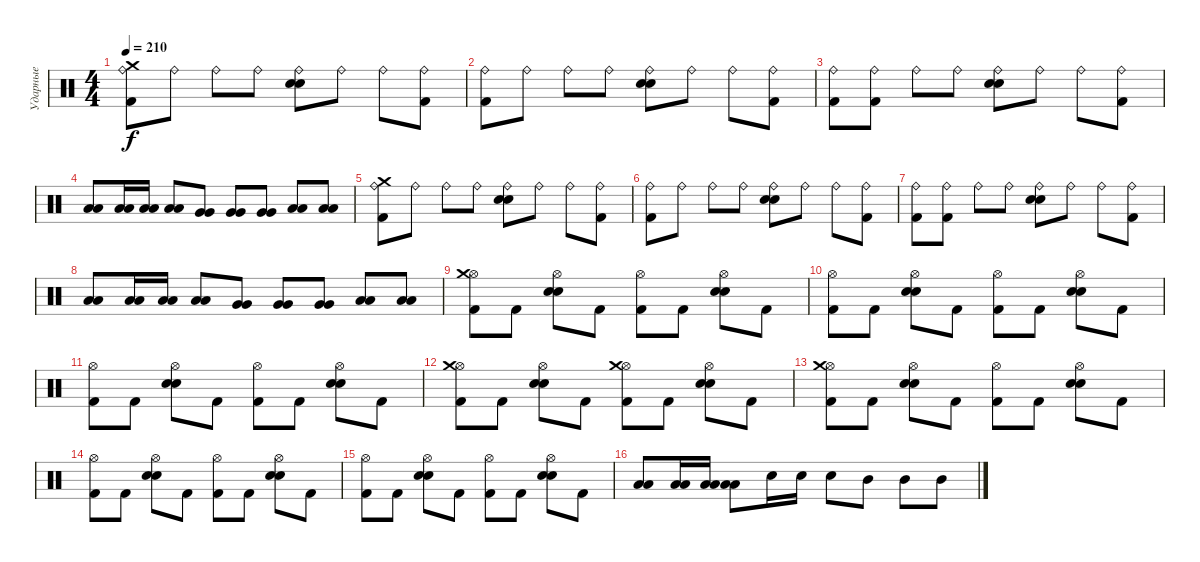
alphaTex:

\track ("Ударные" "Ударные") {instrument percussion}
\staff {score}
\articulation defaults
\ts (4 4)
\tempo 210
\clef neutral
\ks c
("Crash medium (hit)" "Ride (bell)" "Kick (hit) 2").8{dy f} "Ride (bell)".8 "Ride (bell)".8 "Ride (bell)".8 ("Ride (bell)" "Electric Snare (hit)" "Snare (hit) 2").8 "Ride (bell)".8 "Ride (bell)".8 ("Ride (bell)" "Kick (hit) 2").8 |
("Ride (bell)" "Kick (hit) 2").8 "Ride (bell)".8 "Ride (bell)".8 "Ride (bell)".8 ("Ride (bell)" "Electric Snare (hit)" "Snare (hit) 2").8 "Ride (bell)".8 "Ride (bell)".8 ("Ride (bell)" "Kick (hit) 2").8 |
("Ride (bell)" "Kick (hit) 2").8 ("Ride (bell)" "Kick (hit) 2").8 "Ride (bell)".8 "Ride (bell)".8 ("Ride (bell)" "Electric Snare (hit)" "Snare (hit) 2").8 "Ride (bell)".8 "Ride (bell)".8 ("Ride (bell)" "Kick (hit) 2").8 |
("Low Floor Tom (hit)" "Low Floor Tom (hit)").8 ("Low Floor Tom (hit)" "Low Floor Tom (hit)").16 ("Low Floor Tom (hit)" "Low Floor Tom (hit)").16 ("Low Floor Tom (hit)" "Low Floor Tom (hit)").8 ("Very Low Tom (hit)" "Very Low Tom (hit)").8 ("Very Low Tom (hit)" "Very Low Tom (hit)").8 ("Very Low Tom (hit)" "Very Low Tom (hit)").8 ("Low Tom (hit)" "Low Tom (hit)").8 ("Low Tom (hit)" "Low Tom (hit)").8 |
("Crash medium (hit)" "Ride (bell)" "Kick (hit) 2").8 "Ride (bell)".8 "Ride (bell)".8 "Ride (bell)".8 ("Ride (bell)" "Electric Snare (hit)" "Snare (hit) 2").8 "Ride (bell)".8 "Ride (bell)".8 ("Ride (bell)" "Kick (hit) 2").8 |
("Ride (bell)" "Kick (hit) 2").8 "Ride (bell)".8 "Ride (bell)".8 "Ride (bell)".8 ("Ride (bell)" "Electric Snare (hit)" "Snare (hit) 2").8 "Ride (bell)".8 "Ride (bell)".8 ("Ride (bell)" "Kick (hit) 2").8 |
("Ride (bell)" "Kick (hit) 2").8 ("Ride (bell)" "Kick (hit) 2").8 "Ride (bell)".8 "Ride (bell)".8 ("Ride (bell)" "Electric Snare (hit)" "Snare (hit) 2").8 "Ride (bell)".8 "Ride (bell)".8 ("Ride (bell)" "Kick (hit) 2").8 |
("Low Floor Tom (hit)" "Low Floor Tom (hit)").8 ("Low Floor Tom (hit)" "Low Floor Tom (hit)").16 ("Low Floor Tom (hit)" "Low Floor Tom (hit)").16 ("Low Floor Tom (hit)" "Low Floor Tom (hit)").8 ("Very Low Tom (hit)" "Very Low Tom (hit)").8 ("Very Low Tom (hit)" "Very Low Tom (hit)").8 ("Very Low Tom (hit)" "Very Low Tom (hit)").8 ("Low Tom (hit)" "Low Tom (hit)").8 ("Low Tom (hit)" "Low Tom (hit)").8 |
("Hi-Hat (open)" "Crash medium (hit)" "Kick (hit) 2").8 "Kick (hit) 2".8 ("Hi-Hat (open)" "Electric Snare (hit)" "Snare (hit) 2").8 "Kick (hit) 2".8 ("Hi-Hat (open)" "Kick (hit) 2").8 "Kick (hit) 2".8 ("Hi-Hat (open)" "Electric Snare (hit)" "Snare (hit) 2").8 "Kick (hit) 2".8 |
("Hi-Hat (open)" "Kick (hit) 2").8 "Kick (hit) 2".8 ("Hi-Hat (open)" "Electric Snare (hit)" "Snare (hit) 2").8 "Kick (hit) 2".8 ("Hi-Hat (open)" "Kick (hit) 2").8 "Kick (hit) 2".8 ("Hi-Hat (open)" "Electric Snare (hit)" "Snare (hit) 2").8 "Kick (hit) 2".8 |
("Hi-Hat (open)" "Kick (hit) 2").8 "Kick (hit) 2".8 ("Hi-Hat (open)" "Electric Snare (hit)" "Snare (hit) 2").8 "Kick (hit) 2".8 ("Hi-Hat (open)" "Kick (hit) 2").8 "Kick (hit) 2".8 ("Hi-Hat (open)" "Electric Snare (hit)" "Snare (hit) 2").8 "Kick (hit) 2".8 |
("Hi-Hat (open)" "Crash medium (hit)" "Kick (hit) 2").8 "Kick (hit) 2".8 ("Hi-Hat (open)" "Electric Snare (hit)" "Snare (hit) 2").8 "Kick (hit) 2".8 ("Hi-Hat (open)" "Crash medium (hit)" "Kick (hit) 2").8 "Kick (hit) 2".8 ("Hi-Hat (open)" "Electric Snare (hit)" "Snare (hit) 2").8 "Kick (hit) 2".8 |
("Hi-Hat (open)" "Crash medium (hit)" "Kick (hit) 2").8 "Kick (hit) 2".8 ("Hi-Hat (open)" "Electric Snare (hit)" "Snare (hit) 2").8 "Kick (hit) 2".8 ("Hi-Hat (open)" "Kick (hit) 2").8 "Kick (hit) 2".8 ("Hi-Hat (open)" "Electric Snare (hit)" "Snare (hit) 2").8 "Kick (hit) 2".8 |
("Hi-Hat (open)" "Kick (hit) 2").8 "Kick (hit) 2".8 ("Hi-Hat (open)" "Electric Snare (hit)" "Snare (hit) 2").8 "Kick (hit) 2".8 ("Hi-Hat (open)" "Kick (hit) 2").8 "Kick (hit) 2".8 ("Hi-Hat (open)" "Electric Snare (hit)" "Snare (hit) 2").8 "Kick (hit) 2".8 |
("Hi-Hat (open)" "Kick (hit) 2").8 "Kick (hit) 2".8 ("Hi-Hat (open)" "Electric Snare (hit)" "Snare (hit) 2").8 "Kick (hit) 2".8 ("Hi-Hat (open)" "Kick (hit) 2").8 "Kick (hit) 2".8 ("Hi-Hat (open)" "Electric Snare (hit)" "Snare (hit) 2").8 "Kick (hit) 2".8 |
("Low Tom (hit)" "Low Tom (hit)").8 ("Low Tom (hit)" "Low Tom (hit)").16 ("Low Tom (hit)" "Low Tom (hit)").16 ("Low Tom (hit)" "Low Tom (hit)").8 "Electric Snare (hit)".16 "Electric Snare (hit)".16 "Electric Snare (hit)".8 "Mid Tom (hit)".8 "Mid Tom (hit)".8 "Mid Tom (hit)".8
